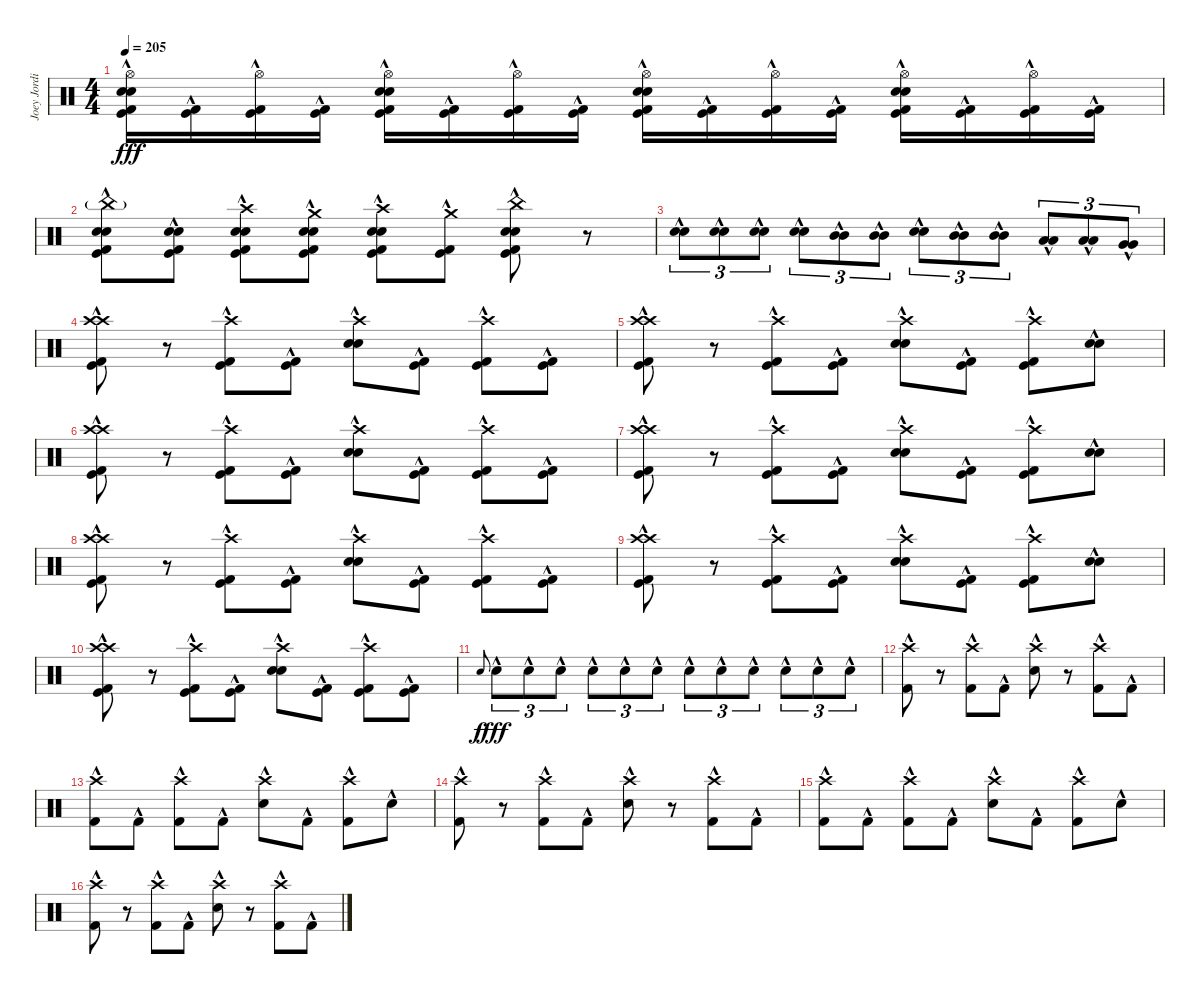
\track ("Joey Jordison" "Joey Jordi") {instrument percussion}
\staff {score}
\articulation defaults
\ts (4 4)
\tempo 205
\clef neutral
\ks c
("Hi-Hat (open)"{hac} "Electric Snare (hit)"{hac} "Electric Snare (hit)"{hac} "Kick (hit)"{hac} "Kick (hit) 2"{hac}).16{dy fff} ("Kick (hit)"{hac} "Kick (hit) 2"{hac}).16 ("Hi-Hat (open)" "Kick (hit)"{hac} "Kick (hit) 2"{hac}).16 ("Kick (hit)"{hac} "Kick (hit) 2"{hac}).16 ("Hi-Hat (open)"{hac} "Electric Snare (hit)"{hac} "Electric Snare (hit)"{hac} "Kick (hit)"{hac} "Kick (hit) 2"{hac}).16 ("Kick (hit)"{hac} "Kick (hit) 2"{hac}).16 ("Hi-Hat (open)" "Kick (hit)"{hac} "Kick (hit) 2"{hac}).16 ("Kick (hit)"{hac} "Kick (hit) 2"{hac}).16 ("Hi-Hat (open)"{hac} "Electric Snare (hit)"{hac} "Electric Snare (hit)"{hac} "Kick (hit)"{hac} "Kick (hit) 2"{hac}).16 ("Kick (hit)"{hac} "Kick (hit) 2"{hac}).16 ("Hi-Hat (open)" "Kick (hit)"{hac} "Kick (hit) 2"{hac}).16 ("Kick (hit)"{hac} "Kick (hit) 2"{hac}).16 ("Hi-Hat (open)"{hac} "Electric Snare (hit)"{hac} "Electric Snare (hit)"{hac} "Kick (hit)"{hac} "Kick (hit) 2"{hac}).16 ("Kick (hit)"{hac} "Kick (hit) 2"{hac}).16 ("Hi-Hat (open)" "Kick (hit)"{hac} "Kick (hit) 2"{hac}).16 ("Kick (hit)"{hac} "Kick (hit) 2"{hac}).16 |
("China (hit)"{g} "Electric Snare (hit)"{hac} "Electric Snare (hit)"{hac} "Kick (hit)"{hac} "Kick (hit) 2"{hac}).8 ("Electric Snare (hit)"{hac} "Electric Snare (hit)"{hac} "Kick (hit)"{hac} "Kick (hit) 2"{hac}).8 ("Crash high (hit)"{hac} "Electric Snare (hit)"{hac} "Electric Snare (hit)"{hac} "Kick (hit)"{hac} "Kick (hit) 2"{hac}).8 ("Crash medium (hit)"{hac} "Electric Snare (hit)"{hac} "Electric Snare (hit)"{hac} "Kick (hit)"{hac} "Kick (hit) 2"{hac}).8 ("Crash high (hit)"{hac} "Electric Snare (hit)"{hac} "Electric Snare (hit)"{hac} "Kick (hit)"{hac} "Kick (hit) 2"{hac}).8 ("Crash medium (hit)"{hac} "Kick (hit)"{hac} "Kick (hit) 2"{hac}).8 ("China (hit)" "Electric Snare (hit)"{hac} "Electric Snare (hit)"{hac} "Kick (hit)"{hac} "Kick (hit) 2"{hac}).8 r.8 |
("Electric Snare (hit)"{hac} "Electric Snare (hit)"{hac}).8{tu (3 2)} ("Electric Snare (hit)"{hac} "Electric Snare (hit)"{hac}).8{tu (3 2)} ("Electric Snare (hit)"{hac} "Electric Snare (hit)"{hac}).8{tu (3 2)} ("Electric Snare (hit)"{hac} "Electric Snare (hit)"{hac}).8{tu (3 2)} ("Mid Tom (hit)"{hac} "Mid Tom (hit)"{hac}).8{tu (3 2)} ("Mid Tom (hit)"{hac} "Mid Tom (hit)"{hac}).8{tu (3 2)} ("Electric Snare (hit)"{hac} "Electric Snare (hit)"{hac}).8{tu (3 2)} ("Mid Tom (hit)"{hac} "Mid Tom (hit)"{hac}).8{tu (3 2)} ("Mid Tom (hit)"{hac} "Mid Tom (hit)"{hac}).8{tu (3 2)} ("Low Tom (hit)"{hac} "Low Tom (hit)"{hac}).8{tu (3 2)} ("Low Tom (hit)"{hac} "Low Tom (hit)"{hac}).8{tu (3 2)} ("Very Low Tom (hit)"{hac} "Very Low Tom (hit)"{hac}).8{tu (3 2)} |
("Crash high (hit)"{hac} "Crash high (hit)"{hac} "Kick (hit)"{hac} "Kick (hit) 2"{hac}).8 r.8 ("Crash high (hit)"{hac} "Kick (hit)"{hac} "Kick (hit) 2"{hac}).8 ("Kick (hit)"{hac} "Kick (hit) 2"{hac}).8 ("Crash high (hit)"{hac} "Electric Snare (hit)"{hac} "Electric Snare (hit)"{hac}).8 ("Kick (hit)"{hac} "Kick (hit) 2"{hac}).8 ("Crash high (hit)"{hac} "Kick (hit)"{hac} "Kick (hit) 2"{hac}).8 ("Kick (hit)"{hac} "Kick (hit) 2"{hac}).8 |
("Crash high (hit)"{hac} "Crash high (hit)"{hac} "Kick (hit)"{hac} "Kick (hit) 2"{hac}).8 r.8 ("Crash high (hit)"{hac} "Kick (hit)"{hac} "Kick (hit) 2"{hac}).8 ("Kick (hit)"{hac} "Kick (hit) 2"{hac}).8 ("Crash high (hit)"{hac} "Electric Snare (hit)"{hac} "Electric Snare (hit)"{hac}).8 ("Kick (hit)"{hac} "Kick (hit) 2"{hac}).8 ("Crash high (hit)"{hac} "Kick (hit)"{hac} "Kick (hit) 2"{hac}).8 ("Electric Snare (hit)"{hac} "Electric Snare (hit)"{hac}).8 |
("Crash high (hit)"{hac} "Crash high (hit)"{hac} "Kick (hit)"{hac} "Kick (hit) 2"{hac}).8 r.8 ("Crash high (hit)"{hac} "Kick (hit)"{hac} "Kick (hit) 2"{hac}).8 ("Kick (hit)"{hac} "Kick (hit) 2"{hac}).8 ("Crash high (hit)"{hac} "Electric Snare (hit)"{hac} "Electric Snare (hit)"{hac}).8 ("Kick (hit)"{hac} "Kick (hit) 2"{hac}).8 ("Crash high (hit)"{hac} "Kick (hit)"{hac} "Kick (hit) 2"{hac}).8 ("Kick (hit)"{hac} "Kick (hit) 2"{hac}).8 |
("Crash high (hit)"{hac} "Crash high (hit)"{hac} "Kick (hit)"{hac} "Kick (hit) 2"{hac}).8 r.8 ("Crash high (hit)"{hac} "Kick (hit)"{hac} "Kick (hit) 2"{hac}).8 ("Kick (hit)"{hac} "Kick (hit) 2"{hac}).8 ("Crash high (hit)"{hac} "Electric Snare (hit)"{hac} "Electric Snare (hit)"{hac}).8 ("Kick (hit)"{hac} "Kick (hit) 2"{hac}).8 ("Crash high (hit)"{hac} "Kick (hit)"{hac} "Kick (hit) 2"{hac}).8 ("Electric Snare (hit)"{hac} "Electric Snare (hit)"{hac}).8 |
("Crash high (hit)"{hac} "Crash high (hit)"{hac} "Kick (hit)"{hac} "Kick (hit) 2"{hac}).8 r.8 ("Crash high (hit)"{hac} "Kick (hit)"{hac} "Kick (hit) 2"{hac}).8 ("Kick (hit)"{hac} "Kick (hit) 2"{hac}).8 ("Crash high (hit)"{hac} "Electric Snare (hit)"{hac} "Electric Snare (hit)"{hac}).8 ("Kick (hit)"{hac} "Kick (hit) 2"{hac}).8 ("Crash high (hit)"{hac} "Kick (hit)"{hac} "Kick (hit) 2"{hac}).8 ("Kick (hit)"{hac} "Kick (hit) 2"{hac}).8 |
("Crash high (hit)"{hac} "Crash high (hit)"{hac} "Kick (hit)"{hac} "Kick (hit) 2"{hac}).8 r.8 ("Crash high (hit)"{hac} "Kick (hit)"{hac} "Kick (hit) 2"{hac}).8 ("Kick (hit)"{hac} "Kick (hit) 2"{hac}).8 ("Crash high (hit)"{hac} "Electric Snare (hit)"{hac} "Electric Snare (hit)"{hac}).8 ("Kick (hit)"{hac} "Kick (hit) 2"{hac}).8 ("Crash high (hit)"{hac} "Kick (hit)"{hac} "Kick (hit) 2"{hac}).8 ("Electric Snare (hit)"{hac} "Electric Snare (hit)"{hac}).8 |
("Crash high (hit)"{hac} "Crash high (hit)"{hac} "Kick (hit)"{hac} "Kick (hit) 2"{hac}).8 r.8 ("Crash high (hit)"{hac} "Kick (hit)"{hac} "Kick (hit) 2"{hac}).8 ("Kick (hit)"{hac} "Kick (hit) 2"{hac}).8 ("Crash high (hit)"{hac} "Electric Snare (hit)"{hac} "Electric Snare (hit)"{hac}).8 ("Kick (hit)"{hac} "Kick (hit) 2"{hac}).8 ("Crash high (hit)"{hac} "Kick (hit)"{hac} "Kick (hit) 2"{hac}).8 ("Kick (hit)"{hac} "Kick (hit) 2"{hac}).8 |
"Electric Snare (hit)".8{gr onbeat dy f} "Electric Snare (hit)"{hac}.8{tu (3 2) dy fff} "Electric Snare (hit)"{hac}.8{tu (3 2)} "Electric Snare (hit)"{hac}.8{tu (3 2)} "Electric Snare (hit)"{hac}.8{tu (3 2)} "Electric Snare (hit)"{hac}.8{tu (3 2)} "Electric Snare (hit)"{hac}.8{tu (3 2)} "Electric Snare (hit)"{hac}.8{tu (3 2)} "Electric Snare (hit)"{hac}.8{tu (3 2)} "Electric Snare (hit)"{hac}.8{tu (3 2)} "Electric Snare (hit)"{hac}.8{tu (3 2)} "Electric Snare (hit)"{hac}.8{tu (3 2)} "Electric Snare (hit)"{hac}.8{tu (3 2)} |
("Crash high (hit)"{hac} "Kick (hit) 2"{hac}).8 r.8 ("Crash high (hit)"{hac} "Kick (hit) 2"{hac}).8 "Kick (hit) 2"{hac}.8 ("Crash high (hit)"{hac} "Electric Snare (hit)"{hac}).8 r.8 ("Crash high (hit)"{hac} "Kick (hit) 2"{hac}).8 "Kick (hit) 2"{hac}.8 |
("Crash high (hit)"{hac} "Kick (hit) 2"{hac}).8 "Kick (hit) 2"{hac}.8 ("Crash high (hit)"{hac} "Kick (hit) 2"{hac}).8 "Kick (hit) 2"{hac}.8 ("Crash high (hit)"{hac} "Electric Snare (hit)"{hac}).8 "Kick (hit) 2"{hac}.8 ("Crash high (hit)"{hac} "Kick (hit) 2"{hac}).8 "Electric Snare (hit)"{hac}.8 |
("Crash high (hit)"{hac} "Kick (hit) 2"{hac}).8 r.8 ("Crash high (hit)"{hac} "Kick (hit) 2"{hac}).8 "Kick (hit) 2"{hac}.8 ("Crash high (hit)"{hac} "Electric Snare (hit)"{hac}).8 r.8 ("Crash high (hit)"{hac} "Kick (hit) 2"{hac}).8 "Kick (hit) 2"{hac}.8 |
("Crash high (hit)"{hac} "Kick (hit) 2"{hac}).8 "Kick (hit) 2"{hac}.8 ("Crash high (hit)"{hac} "Kick (hit) 2"{hac}).8 "Kick (hit) 2"{hac}.8 ("Crash high (hit)"{hac} "Electric Snare (hit)"{hac}).8 "Kick (hit) 2"{hac}.8 ("Crash high (hit)"{hac} "Kick (hit) 2"{hac}).8 "Electric Snare (hit)"{hac}.8 |
("Crash high (hit)"{hac} "Kick (hit) 2"{hac}).8 r.8 ("Crash high (hit)"{hac} "Kick (hit) 2"{hac}).8 "Kick (hit) 2"{hac}.8 ("Crash high (hit)"{hac} "Electric Snare (hit)"{hac}).8 r.8 ("Crash high (hit)"{hac} "Kick (hit) 2"{hac}).8 "Kick (hit) 2"{hac}.8
